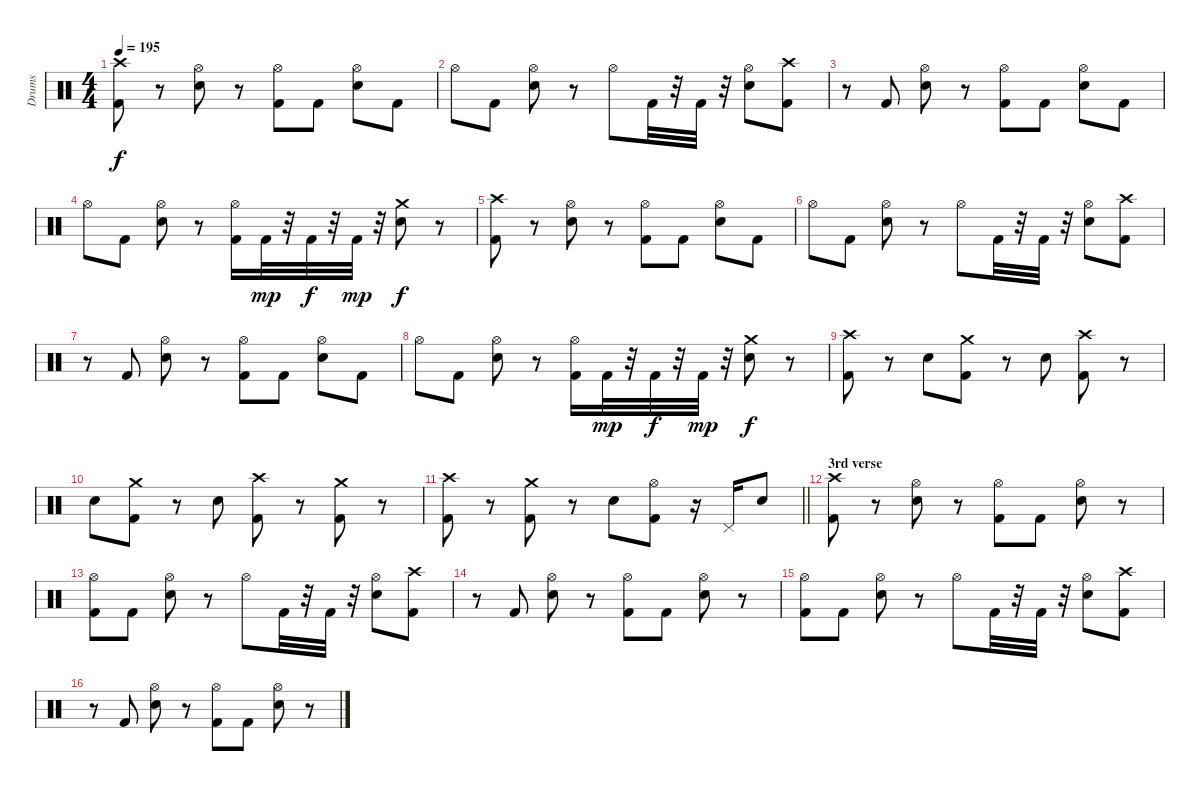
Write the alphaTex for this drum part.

\track ("Drums" "Drums") {instrument percussion}
\staff {score}
\articulation defaults
\ts (4 4)
\tempo 195
\clef neutral
\ks c
("Kick (hit) 2" "Crash high (hit)").8{dy f} r.8 ("Electric Snare (hit)" "Hi-Hat (open)").8 r.8 ("Hi-Hat (open)" "Kick (hit) 2").8 "Kick (hit) 2".8 ("Electric Snare (hit)" "Hi-Hat (open)").8 "Kick (hit) 2".8 |
"Hi-Hat (open)".8 "Kick (hit) 2".8 ("Electric Snare (hit)" "Hi-Hat (open)").8 r.8 "Hi-Hat (open)".8 "Kick (hit) 2".32 r.32 "Kick (hit) 2".32 r.32 ("Electric Snare (hit)" "Hi-Hat (open)").8 ("Kick (hit) 2" "Crash high (hit)").8 |
r.8 "Kick (hit) 2".8 ("Electric Snare (hit)" "Hi-Hat (open)").8 r.8 ("Hi-Hat (open)" "Kick (hit) 2").8 "Kick (hit) 2".8 ("Electric Snare (hit)" "Hi-Hat (open)").8 "Kick (hit) 2".8 |
"Hi-Hat (open)".8 "Kick (hit) 2".8 ("Electric Snare (hit)" "Hi-Hat (open)").8 r.8 ("Kick (hit) 2" "Hi-Hat (open)").16 "Kick (hit) 2".32{dy mp} r.32 "Kick (hit) 2".32{dy f} r.32 "Kick (hit) 2".32{dy mp} r.32 ("Electric Snare (hit)" "Crash medium (hit)").8{dy f} r.8 |
("Kick (hit) 2" "Crash high (hit)").8 r.8 ("Electric Snare (hit)" "Hi-Hat (open)").8 r.8 ("Hi-Hat (open)" "Kick (hit) 2").8 "Kick (hit) 2".8 ("Electric Snare (hit)" "Hi-Hat (open)").8 "Kick (hit) 2".8 |
"Hi-Hat (open)".8 "Kick (hit) 2".8 ("Electric Snare (hit)" "Hi-Hat (open)").8 r.8 "Hi-Hat (open)".8 "Kick (hit) 2".32 r.32 "Kick (hit) 2".32 r.32 ("Electric Snare (hit)" "Hi-Hat (open)").8 ("Kick (hit) 2" "Crash high (hit)").8 |
r.8 "Kick (hit) 2".8 ("Electric Snare (hit)" "Hi-Hat (open)").8 r.8 ("Hi-Hat (open)" "Kick (hit) 2").8 "Kick (hit) 2".8 ("Electric Snare (hit)" "Hi-Hat (open)").8 "Kick (hit) 2".8 |
"Hi-Hat (open)".8 "Kick (hit) 2".8 ("Electric Snare (hit)" "Hi-Hat (open)").8 r.8 ("Kick (hit) 2" "Hi-Hat (open)").16 "Kick (hit) 2".32{dy mp} r.32 "Kick (hit) 2".32{dy f} r.32 "Kick (hit) 2".32{dy mp} r.32 ("Electric Snare (hit)" "Crash medium (hit)").8{dy f} r.8 |
("Kick (hit) 2" "Crash high (hit)").8 r.8 "Electric Snare (hit)".8 ("Kick (hit) 2" "Crash medium (hit)").8 r.8 "Electric Snare (hit)".8 ("Kick (hit) 2" "Crash high (hit)").8 r.8 |
"Electric Snare (hit)".8 ("Kick (hit) 2" "Crash medium (hit)").8 r.8 "Electric Snare (hit)".8 ("Kick (hit) 2" "Crash high (hit)").8 r.8 ("Crash medium (hit)" "Kick (hit) 2").8 r.8 |
\barLineRight lightlight
("Kick (hit) 2" "Crash high (hit)").8 r.8 ("Crash medium (hit)" "Kick (hit) 2").8 r.8 "Electric Snare (hit)".8 ("Kick (hit) 2" "Hi-Hat (open)").8 r.16 "Pedal Hi-Hat (hit)".16 "Electric Snare (hit)".8 |
\section ("" "3rd verse")
("Kick (hit) 2" "Crash high (hit)").8 r.8 ("Electric Snare (hit)" "Hi-Hat (open)").8 r.8 ("Kick (hit) 2" "Hi-Hat (open)").8 "Kick (hit) 2".8 ("Electric Snare (hit)" "Hi-Hat (open)").8 r.8 |
("Kick (hit) 2" "Hi-Hat (open)").8 "Kick (hit) 2".8 ("Electric Snare (hit)" "Hi-Hat (open)").8 r.8 "Hi-Hat (open)".8 "Kick (hit) 2".32 r.32 "Kick (hit) 2".32 r.32 ("Electric Snare (hit)" "Hi-Hat (open)").8 ("Kick (hit) 2" "Crash high (hit)").8 |
r.8 "Kick (hit) 2".8 ("Electric Snare (hit)" "Hi-Hat (open)").8 r.8 ("Kick (hit) 2" "Hi-Hat (open)").8 "Kick (hit) 2".8 ("Electric Snare (hit)" "Hi-Hat (open)").8 r.8 |
("Kick (hit) 2" "Hi-Hat (open)").8 "Kick (hit) 2".8 ("Electric Snare (hit)" "Hi-Hat (open)").8 r.8 "Hi-Hat (open)".8 "Kick (hit) 2".32 r.32 "Kick (hit) 2".32 r.32 ("Electric Snare (hit)" "Hi-Hat (open)").8 ("Kick (hit) 2" "Crash high (hit)").8 |
r.8 "Kick (hit) 2".8 ("Electric Snare (hit)" "Hi-Hat (open)").8 r.8 ("Kick (hit) 2" "Hi-Hat (open)").8 "Kick (hit) 2".8 ("Electric Snare (hit)" "Hi-Hat (open)").8 r.8
